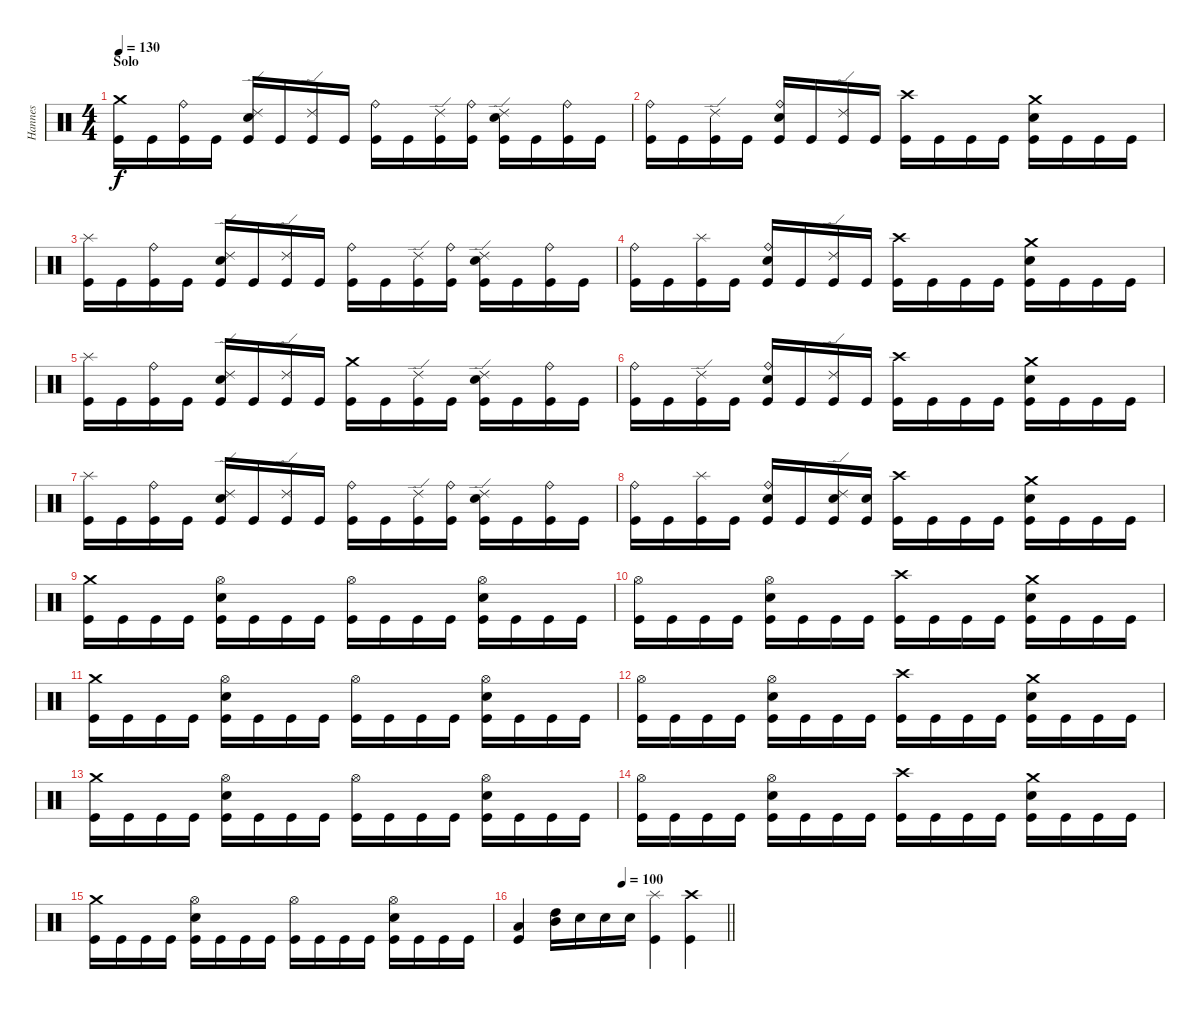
\track ("Hannes" "Hannes") {instrument percussion}
\staff {score}
\articulation defaults
\ts (4 4)
\section ("" "Solo")
\tempo 130
\clef neutral
\ks c
("Crash medium (hit)" "Kick (hit)").16{dy f} "Kick (hit)".16 ("Ride (bell)" "Kick (hit)").16 "Kick (hit)".16 ("Ride (edge) 2" "Electric Snare (hit)" "Kick (hit)").16 "Kick (hit)".16 ("Ride (edge) 2" "Kick (hit)").16 "Kick (hit)".16 ("Ride (bell)" "Kick (hit)").16 "Kick (hit)".16 ("Ride (edge) 2" "Kick (hit)").16 ("Ride (bell)" "Kick (hit)").16 ("Ride (edge) 2" "Electric Snare (hit)" "Kick (hit)").16 "Kick (hit)".16 ("Ride (bell)" "Kick (hit)").16 "Kick (hit)".16 |
("Ride (bell)" "Kick (hit)").16 "Kick (hit)".16 ("Ride (edge) 2" "Kick (hit)").16 "Kick (hit)".16 ("Ride (bell)" "Electric Snare (hit)" "Kick (hit)").16 "Kick (hit)".16 ("Ride (edge) 2" "Kick (hit)").16 "Kick (hit)".16 ("Crash high (hit)" "Kick (hit)").16 "Kick (hit)".16 "Kick (hit)".16 "Kick (hit)".16 ("Crash medium (hit)" "Electric Snare (hit)" "Kick (hit)").16 "Kick (hit)".16 "Kick (hit)".16 "Kick (hit)".16 |
("Splash (hit)" "Kick (hit)").16 "Kick (hit)".16 ("Ride (bell)" "Kick (hit)").16 "Kick (hit)".16 ("Ride (edge) 2" "Electric Snare (hit)" "Kick (hit)").16 "Kick (hit)".16 ("Ride (edge) 2" "Kick (hit)").16 "Kick (hit)".16 ("Ride (bell)" "Kick (hit)").16 "Kick (hit)".16 ("Ride (edge) 2" "Kick (hit)").16 ("Ride (bell)" "Kick (hit)").16 ("Ride (edge) 2" "Electric Snare (hit)" "Kick (hit)").16 "Kick (hit)".16 ("Ride (bell)" "Kick (hit)").16 "Kick (hit)".16 |
("Ride (bell)" "Kick (hit)").16 "Kick (hit)".16 ("Splash (hit)" "Kick (hit)").16 "Kick (hit)".16 ("Ride (bell)" "Electric Snare (hit)" "Kick (hit)").16 "Kick (hit)".16 ("Ride (edge) 2" "Kick (hit)").16 "Kick (hit)".16 ("Crash high (hit)" "Kick (hit)").16 "Kick (hit)".16 "Kick (hit)".16 "Kick (hit)".16 ("Crash medium (hit)" "Electric Snare (hit)" "Kick (hit)").16 "Kick (hit)".16 "Kick (hit)".16 "Kick (hit)".16 |
("Splash (hit)" "Kick (hit)").16 "Kick (hit)".16 ("Ride (bell)" "Kick (hit)").16 "Kick (hit)".16 ("Ride (edge) 2" "Electric Snare (hit)" "Kick (hit)").16 "Kick (hit)".16 ("Ride (edge) 2" "Kick (hit)").16 "Kick (hit)".16 ("Crash medium (hit)" "Kick (hit)").16 "Kick (hit)".16 ("Ride (edge) 2" "Kick (hit)").16 "Kick (hit)".16 ("Ride (edge) 2" "Electric Snare (hit)" "Kick (hit)").16 "Kick (hit)".16 ("Ride (bell)" "Kick (hit)").16 "Kick (hit)".16 |
("Ride (bell)" "Kick (hit)").16 "Kick (hit)".16 ("Ride (edge) 2" "Kick (hit)").16 "Kick (hit)".16 ("Ride (bell)" "Electric Snare (hit)" "Kick (hit)").16 "Kick (hit)".16 ("Ride (edge) 2" "Kick (hit)").16 "Kick (hit)".16 ("Crash high (hit)" "Kick (hit)").16 "Kick (hit)".16 "Kick (hit)".16 "Kick (hit)".16 ("Crash medium (hit)" "Electric Snare (hit)" "Kick (hit)").16 "Kick (hit)".16 "Kick (hit)".16 "Kick (hit)".16 |
("Splash (hit)" "Kick (hit)").16 "Kick (hit)".16 ("Ride (bell)" "Kick (hit)").16 "Kick (hit)".16 ("Ride (edge) 2" "Electric Snare (hit)" "Kick (hit)").16 "Kick (hit)".16 ("Ride (edge) 2" "Kick (hit)").16 "Kick (hit)".16 ("Ride (bell)" "Kick (hit)").16 "Kick (hit)".16 ("Ride (edge) 2" "Kick (hit)").16 ("Ride (bell)" "Kick (hit)").16 ("Ride (edge) 2" "Electric Snare (hit)" "Kick (hit)").16 "Kick (hit)".16 ("Ride (bell)" "Kick (hit)").16 "Kick (hit)".16 |
("Ride (bell)" "Kick (hit)").16 "Kick (hit)".16 ("Splash (hit)" "Kick (hit)").16 "Kick (hit)".16 ("Ride (bell)" "Electric Snare (hit)" "Kick (hit)").16 "Kick (hit)".16 ("Ride (edge) 2" "Electric Snare (hit)" "Kick (hit)").16 ("Electric Snare (hit)" "Kick (hit)").16 ("Crash high (hit)" "Kick (hit)").16 "Kick (hit)".16 "Kick (hit)".16 "Kick (hit)".16 ("Crash medium (hit)" "Electric Snare (hit)" "Kick (hit)").16 "Kick (hit)".16 "Kick (hit)".16 "Kick (hit)".16 |
("Crash medium (hit)" "Kick (hit)").16 "Kick (hit)".16 "Kick (hit)".16 "Kick (hit)".16 ("Hi-Hat (open)" "Electric Snare (hit)" "Kick (hit)").16 "Kick (hit)".16 "Kick (hit)".16 "Kick (hit)".16 ("Hi-Hat (open)" "Kick (hit)").16 "Kick (hit)".16 "Kick (hit)".16 "Kick (hit)".16 ("Hi-Hat (open)" "Electric Snare (hit)" "Kick (hit)").16 "Kick (hit)".16 "Kick (hit)".16 "Kick (hit)".16 |
("Hi-Hat (open)" "Kick (hit)").16 "Kick (hit)".16 "Kick (hit)".16 "Kick (hit)".16 ("Hi-Hat (open)" "Electric Snare (hit)" "Kick (hit)").16 "Kick (hit)".16 "Kick (hit)".16 "Kick (hit)".16 ("Crash high (hit)" "Kick (hit)").16 "Kick (hit)".16 "Kick (hit)".16 "Kick (hit)".16 ("Crash medium (hit)" "Electric Snare (hit)" "Kick (hit)").16 "Kick (hit)".16 "Kick (hit)".16 "Kick (hit)".16 |
("Crash medium (hit)" "Kick (hit)").16 "Kick (hit)".16 "Kick (hit)".16 "Kick (hit)".16 ("Hi-Hat (open)" "Electric Snare (hit)" "Kick (hit)").16 "Kick (hit)".16 "Kick (hit)".16 "Kick (hit)".16 ("Hi-Hat (open)" "Kick (hit)").16 "Kick (hit)".16 "Kick (hit)".16 "Kick (hit)".16 ("Hi-Hat (open)" "Electric Snare (hit)" "Kick (hit)").16 "Kick (hit)".16 "Kick (hit)".16 "Kick (hit)".16 |
("Hi-Hat (open)" "Kick (hit)").16 "Kick (hit)".16 "Kick (hit)".16 "Kick (hit)".16 ("Hi-Hat (open)" "Electric Snare (hit)" "Kick (hit)").16 "Kick (hit)".16 "Kick (hit)".16 "Kick (hit)".16 ("Crash high (hit)" "Kick (hit)").16 "Kick (hit)".16 "Kick (hit)".16 "Kick (hit)".16 ("Crash medium (hit)" "Electric Snare (hit)" "Kick (hit)").16 "Kick (hit)".16 "Kick (hit)".16 "Kick (hit)".16 |
("Crash medium (hit)" "Kick (hit)").16 "Kick (hit)".16 "Kick (hit)".16 "Kick (hit)".16 ("Hi-Hat (open)" "Electric Snare (hit)" "Kick (hit)").16 "Kick (hit)".16 "Kick (hit)".16 "Kick (hit)".16 ("Hi-Hat (open)" "Kick (hit)").16 "Kick (hit)".16 "Kick (hit)".16 "Kick (hit)".16 ("Hi-Hat (open)" "Electric Snare (hit)" "Kick (hit)").16 "Kick (hit)".16 "Kick (hit)".16 "Kick (hit)".16 |
("Hi-Hat (open)" "Kick (hit)").16 "Kick (hit)".16 "Kick (hit)".16 "Kick (hit)".16 ("Hi-Hat (open)" "Electric Snare (hit)" "Kick (hit)").16 "Kick (hit)".16 "Kick (hit)".16 "Kick (hit)".16 ("Crash high (hit)" "Kick (hit)").16 "Kick (hit)".16 "Kick (hit)".16 "Kick (hit)".16 ("Crash medium (hit)" "Electric Snare (hit)" "Kick (hit)").16 "Kick (hit)".16 "Kick (hit)".16 "Kick (hit)".16 |
("Crash medium (hit)" "Kick (hit)").16 "Kick (hit)".16 "Kick (hit)".16 "Kick (hit)".16 ("Hi-Hat (open)" "Electric Snare (hit)" "Kick (hit)").16 "Kick (hit)".16 "Kick (hit)".16 "Kick (hit)".16 ("Hi-Hat (open)" "Kick (hit)").16 "Kick (hit)".16 "Kick (hit)".16 "Kick (hit)".16 ("Hi-Hat (open)" "Electric Snare (hit)" "Kick (hit)").16 "Kick (hit)".16 "Kick (hit)".16 "Kick (hit)".16 |
\tempo (100 0.5)
\barLineRight lightlight
("Low Tom (hit)" "Kick (hit)").4 ("Mid Tom (hit)" "High Tom (hit)").16 "Electric Snare (hit)".16 "Electric Snare (hit)".16 "Electric Snare (hit)".16 ("Splash (hit)" "Kick (hit)").4 ("Crash high (hit)" "Kick (hit)").4
